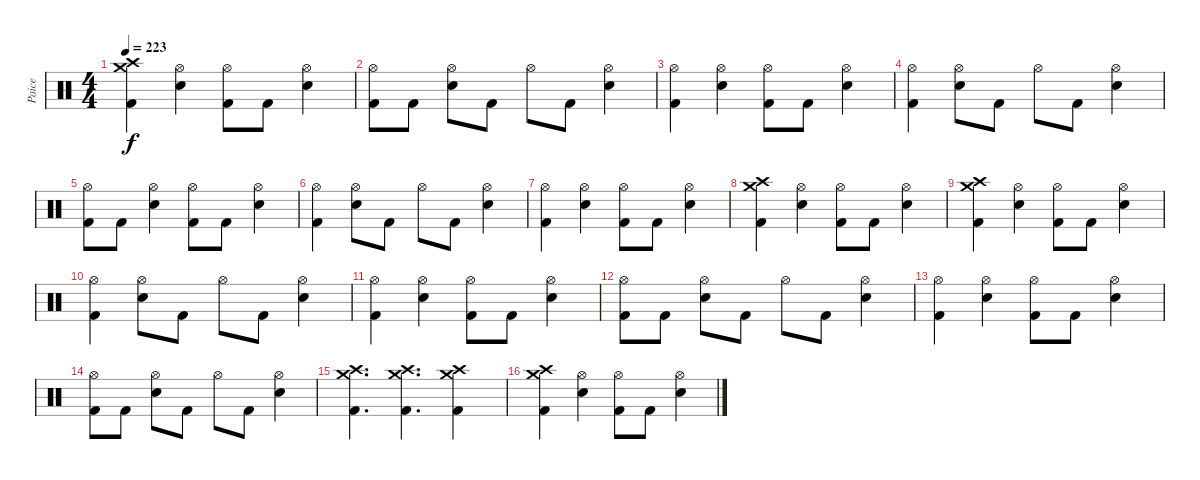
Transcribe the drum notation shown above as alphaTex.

\track ("Paice" "Paice") {instrument percussion}
\staff {score}
\articulation defaults
\ts (4 4)
\tempo 223
\clef neutral
\ks c
("Crash high (hit)" "Crash medium (hit)" "Kick (hit) 2").4{dy f} ("Hi-Hat (open)" "Electric Snare (hit)").4 ("Hi-Hat (open)" "Kick (hit) 2").8 "Kick (hit) 2".8 ("Hi-Hat (open)" "Electric Snare (hit)").4 |
("Hi-Hat (open)" "Kick (hit) 2").8 "Kick (hit) 2".8 ("Hi-Hat (open)" "Electric Snare (hit)").8 "Kick (hit) 2".8 "Hi-Hat (open)".8 "Kick (hit) 2".8 ("Hi-Hat (open)" "Electric Snare (hit)").4 |
("Hi-Hat (open)" "Kick (hit) 2").4 ("Hi-Hat (open)" "Electric Snare (hit)").4 ("Hi-Hat (open)" "Kick (hit) 2").8 "Kick (hit) 2".8 ("Hi-Hat (open)" "Electric Snare (hit)").4 |
("Hi-Hat (open)" "Kick (hit) 2").4 ("Hi-Hat (open)" "Electric Snare (hit)").8 "Kick (hit) 2".8 "Hi-Hat (open)".8 "Kick (hit) 2".8 ("Hi-Hat (open)" "Electric Snare (hit)").4 |
("Hi-Hat (open)" "Kick (hit) 2").8 "Kick (hit) 2".8 ("Hi-Hat (open)" "Electric Snare (hit)").4 ("Hi-Hat (open)" "Kick (hit) 2").8 "Kick (hit) 2".8 ("Hi-Hat (open)" "Electric Snare (hit)").4 |
("Hi-Hat (open)" "Kick (hit) 2").4 ("Hi-Hat (open)" "Electric Snare (hit)").8 "Kick (hit) 2".8 "Hi-Hat (open)".8 "Kick (hit) 2".8 ("Hi-Hat (open)" "Electric Snare (hit)").4 |
("Hi-Hat (open)" "Kick (hit) 2").4 ("Hi-Hat (open)" "Electric Snare (hit)").4 ("Hi-Hat (open)" "Kick (hit) 2").8 "Kick (hit) 2".8 ("Hi-Hat (open)" "Electric Snare (hit)").4 |
("Crash high (hit)" "Crash medium (hit)" "Kick (hit) 2").4 ("Hi-Hat (open)" "Electric Snare (hit)").4 ("Hi-Hat (open)" "Kick (hit) 2").8 "Kick (hit) 2".8 ("Hi-Hat (open)" "Electric Snare (hit)").4 |
("Crash high (hit)" "Crash medium (hit)" "Kick (hit) 2").4 ("Hi-Hat (open)" "Electric Snare (hit)").4 ("Hi-Hat (open)" "Kick (hit) 2").8 "Kick (hit) 2".8 ("Hi-Hat (open)" "Electric Snare (hit)").4 |
("Hi-Hat (open)" "Kick (hit) 2").4 ("Hi-Hat (open)" "Electric Snare (hit)").8 "Kick (hit) 2".8 "Hi-Hat (open)".8 "Kick (hit) 2".8 ("Hi-Hat (open)" "Electric Snare (hit)").4 |
("Hi-Hat (open)" "Kick (hit) 2").4 ("Hi-Hat (open)" "Electric Snare (hit)").4 ("Hi-Hat (open)" "Kick (hit) 2").8 "Kick (hit) 2".8 ("Hi-Hat (open)" "Electric Snare (hit)").4 |
("Hi-Hat (open)" "Kick (hit) 2").8 "Kick (hit) 2".8 ("Hi-Hat (open)" "Electric Snare (hit)").8 "Kick (hit) 2".8 "Hi-Hat (open)".8 "Kick (hit) 2".8 ("Hi-Hat (open)" "Electric Snare (hit)").4 |
("Hi-Hat (open)" "Kick (hit) 2").4 ("Hi-Hat (open)" "Electric Snare (hit)").4 ("Hi-Hat (open)" "Kick (hit) 2").8 "Kick (hit) 2".8 ("Hi-Hat (open)" "Electric Snare (hit)").4 |
("Hi-Hat (open)" "Kick (hit) 2").8 "Kick (hit) 2".8 ("Hi-Hat (open)" "Electric Snare (hit)").8 "Kick (hit) 2".8 "Hi-Hat (open)".8 "Kick (hit) 2".8 ("Hi-Hat (open)" "Electric Snare (hit)").4 |
("Crash high (hit)" "Crash medium (hit)" "Kick (hit) 2").4{d} ("Crash high (hit)" "Crash medium (hit)" "Kick (hit) 2").4{d} ("Crash high (hit)" "Crash medium (hit)" "Kick (hit) 2").4 |
("Crash high (hit)" "Crash medium (hit)" "Kick (hit) 2").4 ("Hi-Hat (open)" "Electric Snare (hit)").4 ("Hi-Hat (open)" "Kick (hit) 2").8 "Kick (hit) 2".8 ("Hi-Hat (open)" "Electric Snare (hit)").4
